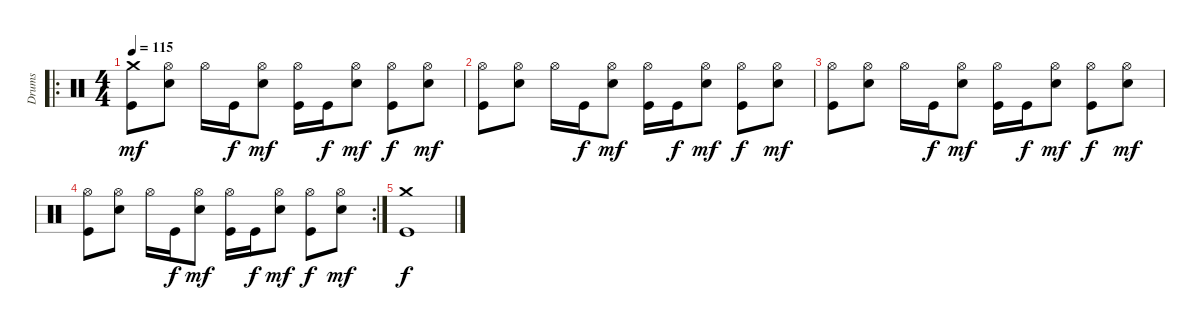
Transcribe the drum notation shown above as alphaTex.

\bracketExtendMode groupsimilarinstruments
\otherSystemsTrackNameOrientation horizontal
\track ("Drumkit" "Drums") {instrument percussion}
\staff {score}
\articulation defaults
\ro
\ts (4 4)
\tempo 115
\clef neutral
\ks c
("Crash medium (hit)" "Kick (hit)").8{dy mf} ("Hi-Hat (open)" "Snare (hit) 2").8 "Hi-Hat (open)".16 "Kick (hit)".16{dy f} ("Hi-Hat (open)" "Snare (hit) 2").8{dy mf} ("Hi-Hat (open)" "Kick (hit)").16 "Kick (hit)".16{dy f} ("Hi-Hat (open)" "Snare (hit) 2").8{dy mf} ("Kick (hit)" "Hi-Hat (open)").8{dy f} ("Hi-Hat (open)" "Snare (hit) 2").8{dy mf} |
("Hi-Hat (open)" "Kick (hit)").8 ("Hi-Hat (open)" "Snare (hit) 2").8 "Hi-Hat (open)".16 "Kick (hit)".16{dy f} ("Hi-Hat (open)" "Snare (hit) 2").8{dy mf} ("Hi-Hat (open)" "Kick (hit)").16 "Kick (hit)".16{dy f} ("Hi-Hat (open)" "Snare (hit) 2").8{dy mf} ("Kick (hit)" "Hi-Hat (open)").8{dy f} ("Hi-Hat (open)" "Snare (hit) 2").8{dy mf} |
("Hi-Hat (open)" "Kick (hit)").8 ("Hi-Hat (open)" "Snare (hit) 2").8 "Hi-Hat (open)".16 "Kick (hit)".16{dy f} ("Hi-Hat (open)" "Snare (hit) 2").8{dy mf} ("Hi-Hat (open)" "Kick (hit)").16 "Kick (hit)".16{dy f} ("Hi-Hat (open)" "Snare (hit) 2").8{dy mf} ("Kick (hit)" "Hi-Hat (open)").8{dy f} ("Hi-Hat (open)" "Snare (hit) 2").8{dy mf} |
\rc 2
("Hi-Hat (open)" "Kick (hit)").8 ("Hi-Hat (open)" "Snare (hit) 2").8 "Hi-Hat (open)".16 "Kick (hit)".16{dy f} ("Hi-Hat (open)" "Snare (hit) 2").8{dy mf} ("Hi-Hat (open)" "Kick (hit)").16 "Kick (hit)".16{dy f} ("Hi-Hat (open)" "Snare (hit) 2").8{dy mf} ("Kick (hit)" "Hi-Hat (open)").8{dy f} ("Hi-Hat (open)" "Snare (hit) 2").8{dy mf} |
("Crash medium (hit)" "Kick (hit)").1{dy f}
